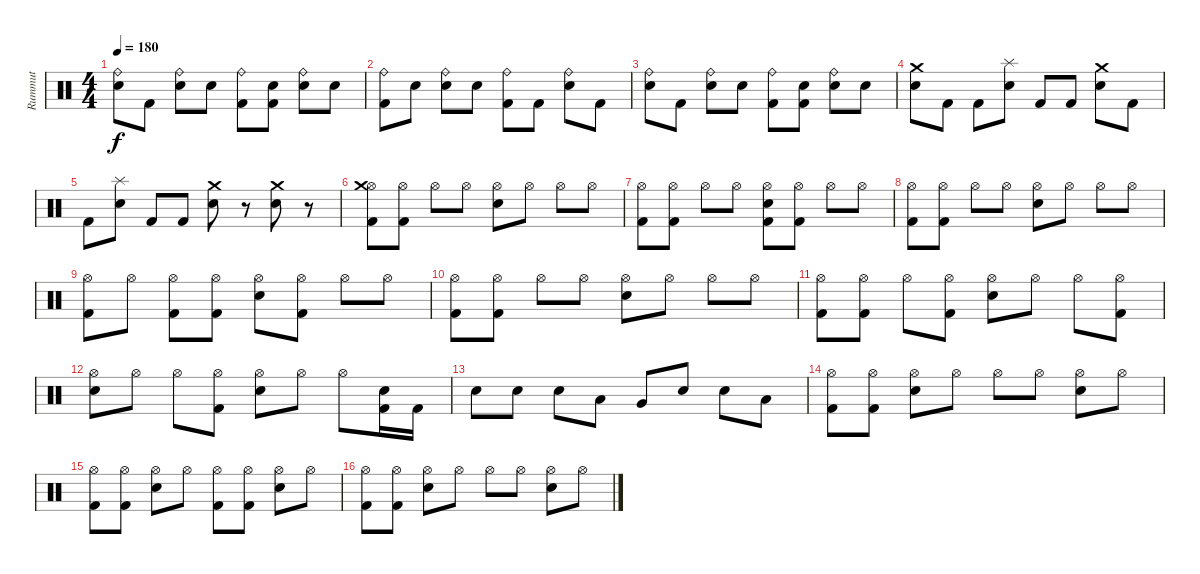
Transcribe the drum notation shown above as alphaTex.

\track ("Rummut" "Rummut") {instrument percussion}
\staff {score}
\articulation defaults
\ts (4 4)
\tempo 180
\clef neutral
\ks c
("Ride (bell)" "Snare (hit)"{x}).8{dy f} "Kick (hit) 2".8 ("Ride (bell)" "Snare (hit) 2").8 "Snare (hit)"{x}.8 ("Ride (bell)" "Kick (hit) 2").8 ("Snare (hit)"{x} "Kick (hit) 2").8 ("Ride (bell)" "Snare (hit) 2").8 "Snare (hit)"{x}.8 |
("Ride (bell)" "Kick (hit) 2").8 "Snare (hit) 2"{x}.8 ("Ride (bell)" "Snare (hit) 2").8 "Snare (hit)"{x}.8 ("Ride (bell)" "Kick (hit) 2").8 "Kick (hit) 2".8 ("Ride (bell)" "Snare (hit) 2").8 "Kick (hit) 2".8 |
("Ride (bell)" "Snare (hit)"{x}).8 "Kick (hit) 2".8 ("Ride (bell)" "Snare (hit) 2").8 "Snare (hit)"{x}.8 ("Ride (bell)" "Kick (hit) 2").8 ("Snare (hit)"{x} "Kick (hit) 2").8 ("Ride (bell)" "Snare (hit) 2").8 "Snare (hit)"{x}.8 |
("Crash medium (hit)" "Snare (hit) 2").8 "Kick (hit) 2".8 "Kick (hit) 2".8 ("Splash (hit)" "Snare (hit) 2").8 "Kick (hit) 2".8 "Kick (hit) 2".8 ("Crash medium (hit)" "Snare (hit) 2").8 "Kick (hit) 2".8 |
"Kick (hit) 2".8 ("Splash (hit)" "Snare (hit) 2").8 "Kick (hit) 2".8 "Kick (hit) 2".8 ("Crash medium (hit)" "Snare (hit) 2").8 r.8 ("Crash medium (hit)" "Snare (hit) 2").8 r.8 |
("Hi-Hat (open)" "Crash medium (hit)" "Kick (hit) 2").8 ("Hi-Hat (open)"{x} "Kick (hit) 2").8 "Hi-Hat (open)".8 "Hi-Hat (open)"{x}.8 ("Hi-Hat (open)" "Snare (hit) 2").8 "Hi-Hat (open)"{x}.8 "Hi-Hat (open)".8 "Hi-Hat (open)"{x}.8 |
("Hi-Hat (open)" "Kick (hit) 2").8 ("Hi-Hat (open)"{x} "Kick (hit) 2").8 "Hi-Hat (open)".8 "Hi-Hat (open)"{x}.8 ("Hi-Hat (open)" "Snare (hit) 2" "Kick (hit) 2").8 ("Hi-Hat (open)"{x} "Kick (hit) 2").8 "Hi-Hat (open)".8 "Hi-Hat (open)"{x}.8 |
("Hi-Hat (open)" "Kick (hit) 2").8 ("Hi-Hat (open)"{x} "Kick (hit) 2").8 "Hi-Hat (open)".8 "Hi-Hat (open)"{x}.8 ("Hi-Hat (open)" "Snare (hit) 2").8 "Hi-Hat (open)"{x}.8 "Hi-Hat (open)".8 "Hi-Hat (open)"{x}.8 |
("Hi-Hat (open)" "Kick (hit) 2").8 "Hi-Hat (open)"{x}.8 ("Hi-Hat (open)" "Kick (hit) 2").8 ("Hi-Hat (open)"{x} "Kick (hit) 2").8 ("Hi-Hat (open)" "Snare (hit) 2").8 ("Hi-Hat (open)"{x} "Kick (hit) 2").8 "Hi-Hat (open)".8 "Hi-Hat (open)"{x}.8 |
("Hi-Hat (open)" "Kick (hit) 2").8 ("Hi-Hat (open)"{x} "Kick (hit) 2").8 "Hi-Hat (open)".8 "Hi-Hat (open)"{x}.8 ("Hi-Hat (open)" "Snare (hit) 2").8 "Hi-Hat (open)"{x}.8 "Hi-Hat (open)".8 "Hi-Hat (open)"{x}.8 |
("Hi-Hat (open)" "Kick (hit) 2").8 ("Hi-Hat (open)"{x} "Kick (hit) 2").8 "Hi-Hat (open)".8 ("Hi-Hat (open)"{x} "Kick (hit) 2").8 ("Hi-Hat (open)" "Snare (hit) 2").8 "Hi-Hat (open)"{x}.8 "Hi-Hat (open)".8 ("Hi-Hat (open)"{x} "Kick (hit) 2").8 |
("Hi-Hat (open)" "Snare (hit) 2").8 "Hi-Hat (open)"{x}.8 "Hi-Hat (open)".8 ("Hi-Hat (open)"{x} "Kick (hit) 2").8 ("Hi-Hat (open)" "Snare (hit) 2").8 "Hi-Hat (open)"{x}.8 "Hi-Hat (open)".8 ("Snare (hit)"{x} "Kick (hit) 2").16 "Kick (hit) 2".16 |
"Snare (hit) 2".8 "Snare (hit) 2".8 "Snare (hit) 2".8 "Low Tom (hit)".8 "Very Low Tom (hit)".8 "Snare (hit) 2".8 "Snare (hit) 2".8 "Low Tom (hit)".8 |
("Hi-Hat (open)" "Kick (hit) 2").8 ("Hi-Hat (open)"{x} "Kick (hit) 2").8 ("Hi-Hat (open)" "Snare (hit) 2").8 "Hi-Hat (open)"{x}.8 "Hi-Hat (open)".8 "Hi-Hat (open)"{x}.8 ("Hi-Hat (open)" "Snare (hit) 2").8 "Hi-Hat (open)"{x}.8 |
("Hi-Hat (open)" "Kick (hit) 2").8 ("Hi-Hat (open)"{x} "Kick (hit) 2").8 ("Hi-Hat (open)" "Snare (hit) 2").8 "Hi-Hat (open)"{x}.8 ("Hi-Hat (open)" "Kick (hit) 2").8 ("Hi-Hat (open)"{x} "Kick (hit) 2").8 ("Hi-Hat (open)" "Snare (hit) 2").8 "Hi-Hat (open)"{x}.8 |
("Hi-Hat (open)" "Kick (hit) 2").8 ("Hi-Hat (open)"{x} "Kick (hit) 2").8 ("Hi-Hat (open)" "Snare (hit) 2").8 "Hi-Hat (open)"{x}.8 "Hi-Hat (open)".8 "Hi-Hat (open)"{x}.8 ("Hi-Hat (open)" "Snare (hit) 2").8 "Hi-Hat (open)"{x}.8
